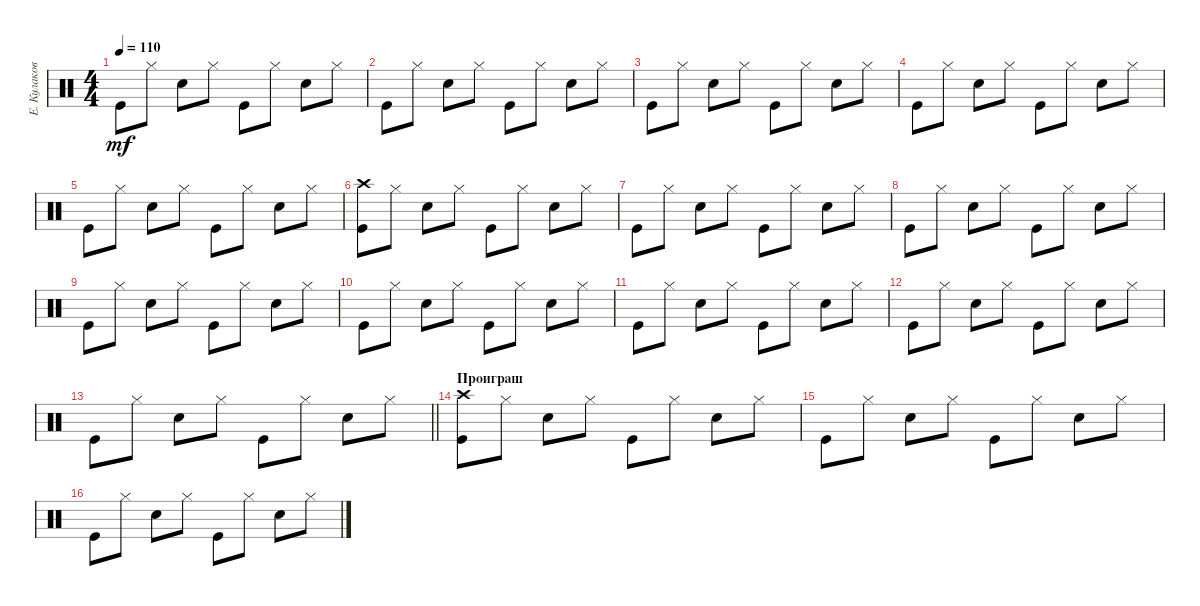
\track ("Е. Кулаков" "Е. Кулаков") {instrument percussion}
\staff {score}
\articulation defaults
\ts (4 4)
\tempo 110
\clef neutral
\ks c "Kick (hit)".8{dy mf} "Hi-Hat (closed)".8 "Snare (hit) 2".8 "Hi-Hat (closed)".8 "Kick (hit)".8 "Hi-Hat (closed)".8 "Snare (hit) 2".8 "Hi-Hat (closed)".8
|
"Kick (hit)".8 "Hi-Hat (closed)".8 "Snare (hit) 2".8 "Hi-Hat (closed)".8 "Kick (hit)".8 "Hi-Hat (closed)".8 "Snare (hit) 2".8 "Hi-Hat (closed)".8 |
"Kick (hit)".8 "Hi-Hat (closed)".8 "Snare (hit) 2".8 "Hi-Hat (closed)".8 "Kick (hit)".8 "Hi-Hat (closed)".8 "Snare (hit) 2".8 "Hi-Hat (closed)".8 |
"Kick (hit)".8 "Hi-Hat (closed)".8 "Snare (hit) 2".8 "Hi-Hat (closed)".8 "Kick (hit)".8 "Hi-Hat (closed)".8 "Snare (hit) 2".8 "Hi-Hat (closed)".8 |
"Kick (hit)".8 "Hi-Hat (closed)".8 "Snare (hit) 2".8 "Hi-Hat (closed)".8 "Kick (hit)".8 "Hi-Hat (closed)".8 "Snare (hit) 2".8 "Hi-Hat (closed)".8 |
("Kick (hit)" "Crash high (hit)").8 "Hi-Hat (closed)".8 "Snare (hit) 2".8 "Hi-Hat (closed)".8 "Kick (hit)".8 "Hi-Hat (closed)".8 "Snare (hit) 2".8 "Hi-Hat (closed)".8 |
"Kick (hit)".8 "Hi-Hat (closed)".8 "Snare (hit) 2".8 "Hi-Hat (closed)".8 "Kick (hit)".8 "Hi-Hat (closed)".8 "Snare (hit) 2".8 "Hi-Hat (closed)".8 |
"Kick (hit)".8 "Hi-Hat (closed)".8 "Snare (hit) 2".8 "Hi-Hat (closed)".8 "Kick (hit)".8 "Hi-Hat (closed)".8 "Snare (hit) 2".8 "Hi-Hat (closed)".8 |
"Kick (hit)".8 "Hi-Hat (closed)".8 "Snare (hit) 2".8 "Hi-Hat (closed)".8 "Kick (hit)".8 "Hi-Hat (closed)".8 "Snare (hit) 2".8 "Hi-Hat (closed)".8 |
"Kick (hit)".8 "Hi-Hat (closed)".8 "Snare (hit) 2".8 "Hi-Hat (closed)".8 "Kick (hit)".8 "Hi-Hat (closed)".8 "Snare (hit) 2".8 "Hi-Hat (closed)".8 |
"Kick (hit)".8 "Hi-Hat (closed)".8 "Snare (hit) 2".8 "Hi-Hat (closed)".8 "Kick (hit)".8 "Hi-Hat (closed)".8 "Snare (hit) 2".8 "Hi-Hat (closed)".8 |
"Kick (hit)".8 "Hi-Hat (closed)".8 "Snare (hit) 2".8 "Hi-Hat (closed)".8 "Kick (hit)".8 "Hi-Hat (closed)".8 "Snare (hit) 2".8 "Hi-Hat (closed)".8 |
\barLineRight lightlight "Kick (hit)".8 "Hi-Hat (closed)".8 "Snare (hit) 2".8 "Hi-Hat (closed)".8 "Kick (hit)".8 "Hi-Hat (closed)".8 "Snare (hit) 2".8 "Hi-Hat (closed)".8
|
\section ("" "Проиграш")
("Kick (hit)" "Crash high (hit)").8 "Hi-Hat (closed)".8 "Snare (hit) 2".8 "Hi-Hat (closed)".8 "Kick (hit)".8 "Hi-Hat (closed)".8 "Snare (hit) 2".8 "Hi-Hat (closed)".8 |
"Kick (hit)".8 "Hi-Hat (closed)".8 "Snare (hit) 2".8 "Hi-Hat (closed)".8 "Kick (hit)".8 "Hi-Hat (closed)".8 "Snare (hit) 2".8 "Hi-Hat (closed)".8 |
"Kick (hit)".8 "Hi-Hat (closed)".8 "Snare (hit) 2".8 "Hi-Hat (closed)".8 "Kick (hit)".8 "Hi-Hat (closed)".8 "Snare (hit) 2".8 "Hi-Hat (closed)".8
